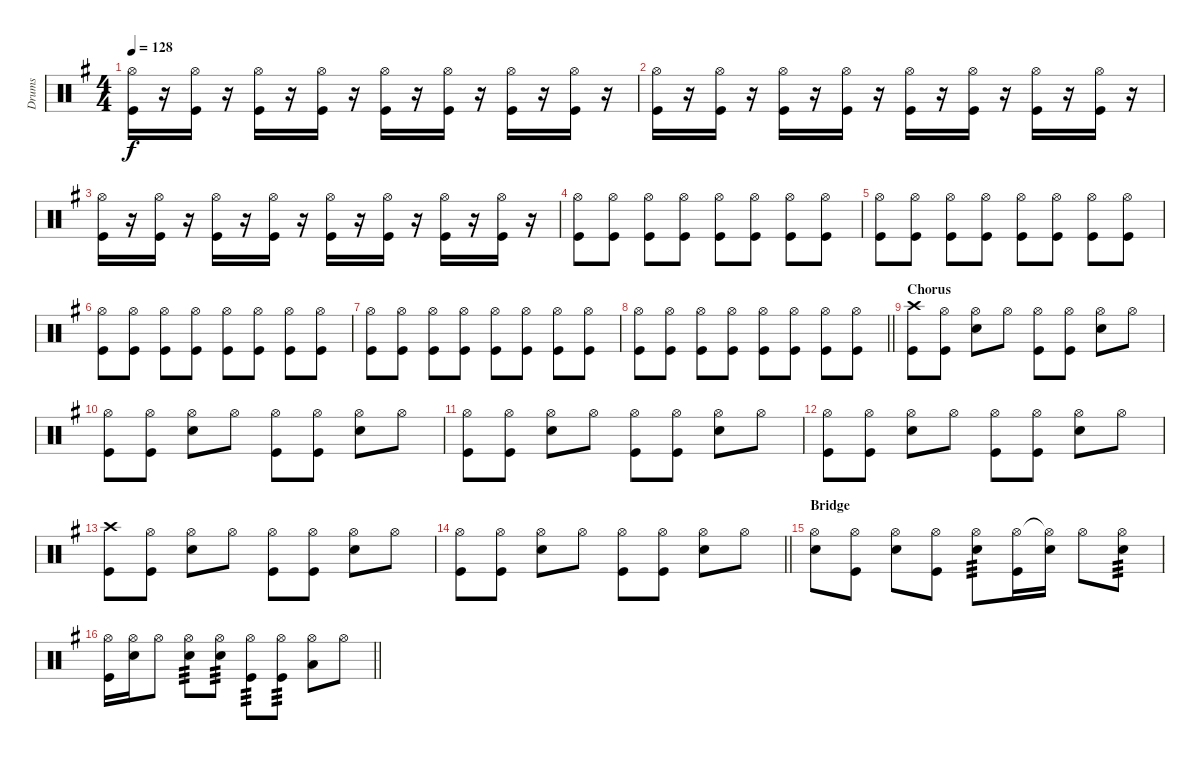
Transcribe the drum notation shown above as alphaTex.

\track ("Drums" "Drums") {instrument percussion}
\staff {score}
\articulation defaults
\ts (4 4)
\tempo 128
\clef neutral
\ks g
("Hi-Hat (open)" "Kick (hit)").16{dy f} r.16 ("Hi-Hat (open)" "Kick (hit)").16 r.16 ("Hi-Hat (open)" "Kick (hit)").16 r.16 ("Hi-Hat (open)" "Kick (hit)").16 r.16 ("Hi-Hat (open)" "Kick (hit)").16 r.16 ("Hi-Hat (open)" "Kick (hit)").16 r.16 ("Hi-Hat (open)" "Kick (hit)").16 r.16 ("Hi-Hat (open)" "Kick (hit)").16 r.16 |
("Hi-Hat (open)" "Kick (hit)").16 r.16 ("Hi-Hat (open)" "Kick (hit)").16 r.16 ("Hi-Hat (open)" "Kick (hit)").16 r.16 ("Hi-Hat (open)" "Kick (hit)").16 r.16 ("Hi-Hat (open)" "Kick (hit)").16 r.16 ("Hi-Hat (open)" "Kick (hit)").16 r.16 ("Hi-Hat (open)" "Kick (hit)").16 r.16 ("Hi-Hat (open)" "Kick (hit)").16 r.16 |
("Hi-Hat (open)" "Kick (hit)").16 r.16 ("Hi-Hat (open)" "Kick (hit)").16 r.16 ("Hi-Hat (open)" "Kick (hit)").16 r.16 ("Hi-Hat (open)" "Kick (hit)").16 r.16 ("Hi-Hat (open)" "Kick (hit)").16 r.16 ("Hi-Hat (open)" "Kick (hit)").16 r.16 ("Hi-Hat (open)" "Kick (hit)").16 r.16 ("Hi-Hat (open)" "Kick (hit)").16 r.16 |
("Hi-Hat (open)" "Kick (hit)").8 ("Hi-Hat (open)" "Kick (hit)").8 ("Hi-Hat (open)" "Kick (hit)").8 ("Hi-Hat (open)" "Kick (hit)").8 ("Hi-Hat (open)" "Kick (hit)").8 ("Hi-Hat (open)" "Kick (hit)").8 ("Hi-Hat (open)" "Kick (hit)").8 ("Hi-Hat (open)" "Kick (hit)").8 |
("Hi-Hat (open)" "Kick (hit)").8 ("Hi-Hat (open)" "Kick (hit)").8 ("Hi-Hat (open)" "Kick (hit)").8 ("Hi-Hat (open)" "Kick (hit)").8 ("Hi-Hat (open)" "Kick (hit)").8 ("Hi-Hat (open)" "Kick (hit)").8 ("Hi-Hat (open)" "Kick (hit)").8 ("Hi-Hat (open)" "Kick (hit)").8 |
("Hi-Hat (open)" "Kick (hit)").8 ("Hi-Hat (open)" "Kick (hit)").8 ("Hi-Hat (open)" "Kick (hit)").8 ("Hi-Hat (open)" "Kick (hit)").8 ("Hi-Hat (open)" "Kick (hit)").8 ("Hi-Hat (open)" "Kick (hit)").8 ("Hi-Hat (open)" "Kick (hit)").8 ("Hi-Hat (open)" "Kick (hit)").8 |
("Hi-Hat (open)" "Kick (hit)").8 ("Hi-Hat (open)" "Kick (hit)").8 ("Hi-Hat (open)" "Kick (hit)").8 ("Hi-Hat (open)" "Kick (hit)").8 ("Hi-Hat (open)" "Kick (hit)").8 ("Hi-Hat (open)" "Kick (hit)").8 ("Hi-Hat (open)" "Kick (hit)").8 ("Hi-Hat (open)" "Kick (hit)").8 |
\barLineRight lightlight
("Hi-Hat (open)" "Kick (hit)").8 ("Hi-Hat (open)" "Kick (hit)").8 ("Hi-Hat (open)" "Kick (hit)").8 ("Hi-Hat (open)" "Kick (hit)").8 ("Hi-Hat (open)" "Kick (hit)").8 ("Hi-Hat (open)" "Kick (hit)").8 ("Hi-Hat (open)" "Kick (hit)").8 ("Hi-Hat (open)" "Kick (hit)").8 |
\section ("" "Chorus")
("Crash high (hit)" "Kick (hit)").8 ("Hi-Hat (open)" "Kick (hit)").8 ("Hi-Hat (open)" "Electric Snare (hit)").8 "Hi-Hat (open)".8 ("Hi-Hat (open)" "Kick (hit)").8 ("Hi-Hat (open)" "Kick (hit)").8 ("Hi-Hat (open)" "Electric Snare (hit)").8 "Hi-Hat (open)".8 |
("Hi-Hat (open)" "Kick (hit)").8 ("Hi-Hat (open)" "Kick (hit)").8 ("Hi-Hat (open)" "Electric Snare (hit)").8 "Hi-Hat (open)".8 ("Hi-Hat (open)" "Kick (hit)").8 ("Hi-Hat (open)" "Kick (hit)").8 ("Hi-Hat (open)" "Electric Snare (hit)").8 "Hi-Hat (open)".8 |
("Hi-Hat (open)" "Kick (hit)").8 ("Hi-Hat (open)" "Kick (hit)").8 ("Hi-Hat (open)" "Electric Snare (hit)").8 "Hi-Hat (open)".8 ("Hi-Hat (open)" "Kick (hit)").8 ("Hi-Hat (open)" "Kick (hit)").8 ("Hi-Hat (open)" "Electric Snare (hit)").8 "Hi-Hat (open)".8 |
("Hi-Hat (open)" "Kick (hit)").8 ("Hi-Hat (open)" "Kick (hit)").8 ("Hi-Hat (open)" "Electric Snare (hit)").8 "Hi-Hat (open)".8 ("Hi-Hat (open)" "Kick (hit)").8 ("Hi-Hat (open)" "Kick (hit)").8 ("Hi-Hat (open)" "Electric Snare (hit)").8 "Hi-Hat (open)".8 |
("Crash high (hit)" "Kick (hit)").8 ("Hi-Hat (open)" "Kick (hit)").8 ("Hi-Hat (open)" "Electric Snare (hit)").8 "Hi-Hat (open)".8 ("Hi-Hat (open)" "Kick (hit)").8 ("Hi-Hat (open)" "Kick (hit)").8 ("Hi-Hat (open)" "Electric Snare (hit)").8 "Hi-Hat (open)".8 |
\barLineRight lightlight
("Hi-Hat (open)" "Kick (hit)").8 ("Hi-Hat (open)" "Kick (hit)").8 ("Hi-Hat (open)" "Electric Snare (hit)").8 "Hi-Hat (open)".8 ("Hi-Hat (open)" "Kick (hit)").8 ("Hi-Hat (open)" "Kick (hit)").8 ("Hi-Hat (open)" "Electric Snare (hit)").8 "Hi-Hat (open)".8 |
\section ("" "Bridge")
("Hi-Hat (open)" "Electric Snare (hit)").8 ("Hi-Hat (open)" "Kick (hit)").8 ("Hi-Hat (open)" "Electric Snare (hit)").8 ("Hi-Hat (open)" "Kick (hit)").8 ("Hi-Hat (open)" "Electric Snare (hit)").8{tp 3} ("Hi-Hat (open)" "Kick (hit)").16 ("Hi-Hat (open)"{t} "Electric Snare (hit)").16 "Hi-Hat (open)".8 ("Hi-Hat (open)" "Electric Snare (hit)").8{tp 3} |
\barLineRight lightlight
("Hi-Hat (open)" "Kick (hit)").16 ("Hi-Hat (open)" "Electric Snare (hit)").16 "Hi-Hat (open)".8 ("Hi-Hat (open)" "Electric Snare (hit)").8{tp 3} ("Hi-Hat (open)" "Electric Snare (hit)").8{tp 3} ("Hi-Hat (open)" "Kick (hit)").8{tp 3} ("Hi-Hat (open)" "Kick (hit)").8{tp 3} ("Hi-Hat (open)" "Low Floor Tom (hit)").8 "Hi-Hat (open)".8
